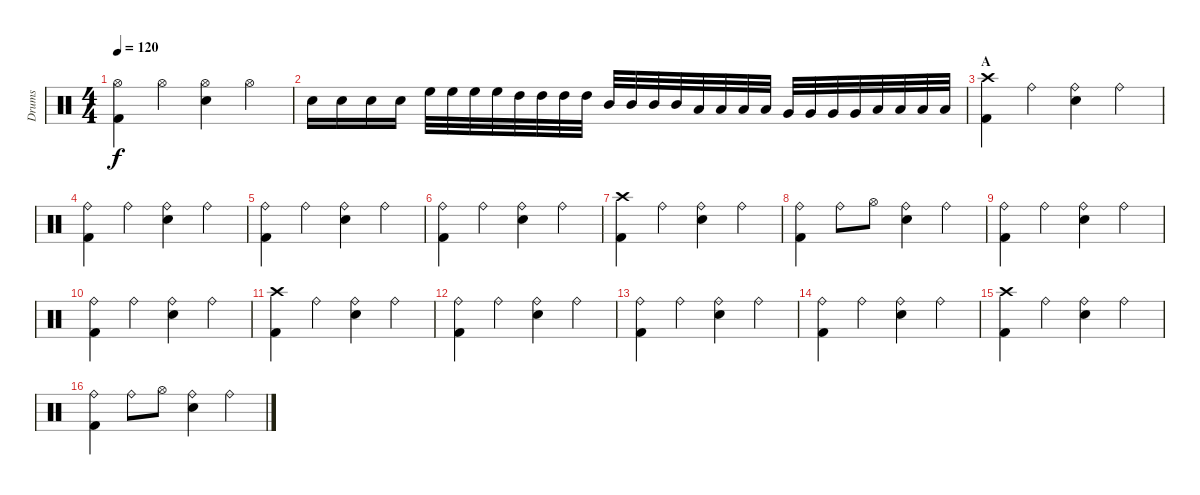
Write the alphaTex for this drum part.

\track ("Drums" "Drums") {instrument percussion}
\staff {score}
\articulation defaults
\ts (4 4)
\tempo 120
\clef neutral
\ks c
("Hi-Hat (open)" "Kick (hit) 2").4{dy f} "Hi-Hat (open)".4 ("Hi-Hat (open)" "Snare (hit) 2").4 "Hi-Hat (open)".4 |
"Snare (hit) 2".16 "Snare (hit) 2".16 "Snare (hit) 2".16 "Snare (hit) 2".16 "High Floor Tom (hit)".32 "High Floor Tom (hit)".32 "High Floor Tom (hit)".32 "High Floor Tom (hit)".32 "High Tom (hit)".32 "High Tom (hit)".32 "High Tom (hit)".32 "High Tom (hit)".32 "Mid Tom (hit)".32 "Mid Tom (hit)".32 "Mid Tom (hit)".32 "Mid Tom (hit)".32 "Low Tom (hit)".32 "Low Tom (hit)".32 "Low Tom (hit)".32 "Low Tom (hit)".32 "Very Low Tom (hit)".32 "Very Low Tom (hit)".32 "Very Low Tom (hit)".32 "Very Low Tom (hit)".32 "Low Floor Tom (hit)".32 "Low Floor Tom (hit)".32 "Low Floor Tom (hit)".32 "Low Floor Tom (hit)".32 |
\section ("" "A")
("Crash high (hit)" "Kick (hit) 2").4 "Ride (bell)".4 ("Ride (bell)" "Snare (hit) 2").4 "Ride (bell)".4 |
("Ride (bell)" "Kick (hit) 2").4 "Ride (bell)".4 ("Ride (bell)" "Snare (hit) 2").4 "Ride (bell)".4 |
("Ride (bell)" "Kick (hit) 2").4 "Ride (bell)".4 ("Ride (bell)" "Snare (hit) 2").4 "Ride (bell)".4 |
("Ride (bell)" "Kick (hit) 2").4 "Ride (bell)".4 ("Ride (bell)" "Snare (hit) 2").4 "Ride (bell)".4 |
("Crash high (hit)" "Kick (hit) 2").4 "Ride (bell)".4 ("Ride (bell)" "Snare (hit) 2").4 "Ride (bell)".4 |
("Ride (bell)" "Kick (hit) 2").4 "Ride (bell)".8 "Hi-Hat (open)".8 ("Ride (bell)" "Snare (hit) 2").4 "Ride (bell)".4 |
("Ride (bell)" "Kick (hit) 2").4 "Ride (bell)".4 ("Ride (bell)" "Snare (hit) 2").4 "Ride (bell)".4 |
("Ride (bell)" "Kick (hit) 2").4 "Ride (bell)".4 ("Ride (bell)" "Snare (hit) 2").4 "Ride (bell)".4 |
("Crash high (hit)" "Kick (hit) 2").4 "Ride (bell)".4 ("Ride (bell)" "Snare (hit) 2").4 "Ride (bell)".4 |
("Ride (bell)" "Kick (hit) 2").4 "Ride (bell)".4 ("Ride (bell)" "Snare (hit) 2").4 "Ride (bell)".4 |
("Ride (bell)" "Kick (hit) 2").4 "Ride (bell)".4 ("Ride (bell)" "Snare (hit) 2").4 "Ride (bell)".4 |
("Ride (bell)" "Kick (hit) 2").4 "Ride (bell)".4 ("Ride (bell)" "Snare (hit) 2").4 "Ride (bell)".4 |
("Crash high (hit)" "Kick (hit) 2").4 "Ride (bell)".4 ("Ride (bell)" "Snare (hit) 2").4 "Ride (bell)".4 |
("Ride (bell)" "Kick (hit) 2").4 "Ride (bell)".8 "Hi-Hat (open)".8 ("Ride (bell)" "Snare (hit) 2").4 "Ride (bell)".4
